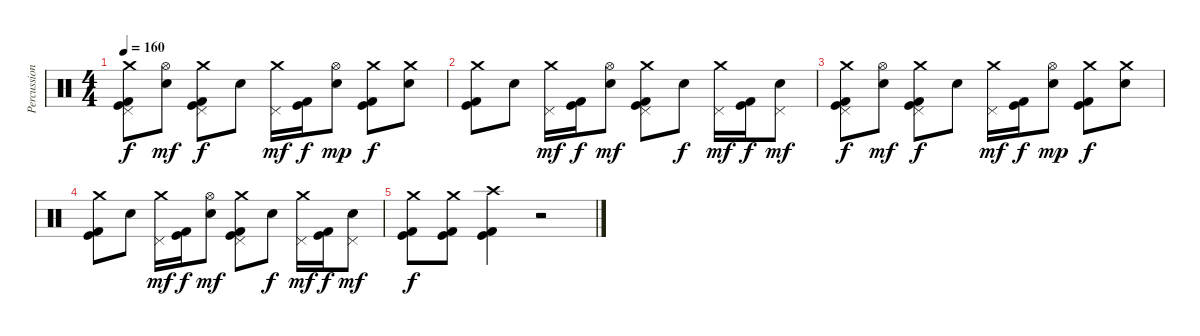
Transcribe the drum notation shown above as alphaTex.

\track ("Percussions" "Percussion") {instrument percussion}
\staff {score}
\articulation defaults
\ts (4 4)
\tempo 160
\clef neutral
\ks c
("Crash medium (hit)" "Pedal Hi-Hat (hit)" "Kick (hit)" "Kick (hit) 2").8{dy f} ("Hi-Hat (open)" "Electric Snare (hit)").8{dy mf} ("Crash medium (hit)" "Pedal Hi-Hat (hit)" "Kick (hit)" "Kick (hit) 2").8{dy f} "Electric Snare (hit)".8 ("Crash medium (hit)" "Pedal Hi-Hat (hit)").16{dy mf} ("Kick (hit)" "Kick (hit) 2").16{dy f} ("Hi-Hat (open)" "Electric Snare (hit)").8{dy mp} ("Crash medium (hit)" "Kick (hit)" "Kick (hit) 2").8{dy f} ("Crash medium (hit)" "Electric Snare (hit)").8 |
("Crash medium (hit)" "Kick (hit)" "Kick (hit) 2").8 "Electric Snare (hit)".8 ("Crash medium (hit)" "Pedal Hi-Hat (hit)").16{dy mf} ("Kick (hit)" "Kick (hit) 2").16{dy f} ("Hi-Hat (open)" "Electric Snare (hit)").8{dy mf} ("Crash medium (hit)" "Pedal Hi-Hat (hit)" "Kick (hit)" "Kick (hit) 2").8 "Electric Snare (hit)".8{dy f} ("Crash medium (hit)" "Pedal Hi-Hat (hit)").16{dy mf} ("Kick (hit)" "Kick (hit) 2").16{dy f} ("Pedal Hi-Hat (hit)" "Electric Snare (hit)").8{dy mf} |
("Crash medium (hit)" "Pedal Hi-Hat (hit)" "Kick (hit)" "Kick (hit) 2").8{dy f} ("Hi-Hat (open)" "Electric Snare (hit)").8{dy mf} ("Crash medium (hit)" "Pedal Hi-Hat (hit)" "Kick (hit)" "Kick (hit) 2").8{dy f} "Electric Snare (hit)".8 ("Crash medium (hit)" "Pedal Hi-Hat (hit)").16{dy mf} ("Kick (hit)" "Kick (hit) 2").16{dy f} ("Hi-Hat (open)" "Electric Snare (hit)").8{dy mp} ("Crash medium (hit)" "Kick (hit)" "Kick (hit) 2").8{dy f} ("Crash medium (hit)" "Electric Snare (hit)").8 |
("Crash medium (hit)" "Kick (hit)" "Kick (hit) 2").8 "Electric Snare (hit)".8 ("Crash medium (hit)" "Pedal Hi-Hat (hit)").16{dy mf} ("Kick (hit)" "Kick (hit) 2").16{dy f} ("Hi-Hat (open)" "Electric Snare (hit)").8{dy mf} ("Crash medium (hit)" "Pedal Hi-Hat (hit)" "Kick (hit)" "Kick (hit) 2").8 "Electric Snare (hit)".8{dy f} ("Crash medium (hit)" "Pedal Hi-Hat (hit)").16{dy mf} ("Kick (hit)" "Kick (hit) 2").16{dy f} ("Pedal Hi-Hat (hit)" "Electric Snare (hit)").8{dy mf} |
("Crash medium (hit)" "Kick (hit)" "Kick (hit) 2").8{dy f} ("Crash medium (hit)" "Kick (hit)" "Kick (hit) 2").8 ("Crash high (hit)" "Kick (hit)" "Kick (hit) 2").4 r.2
